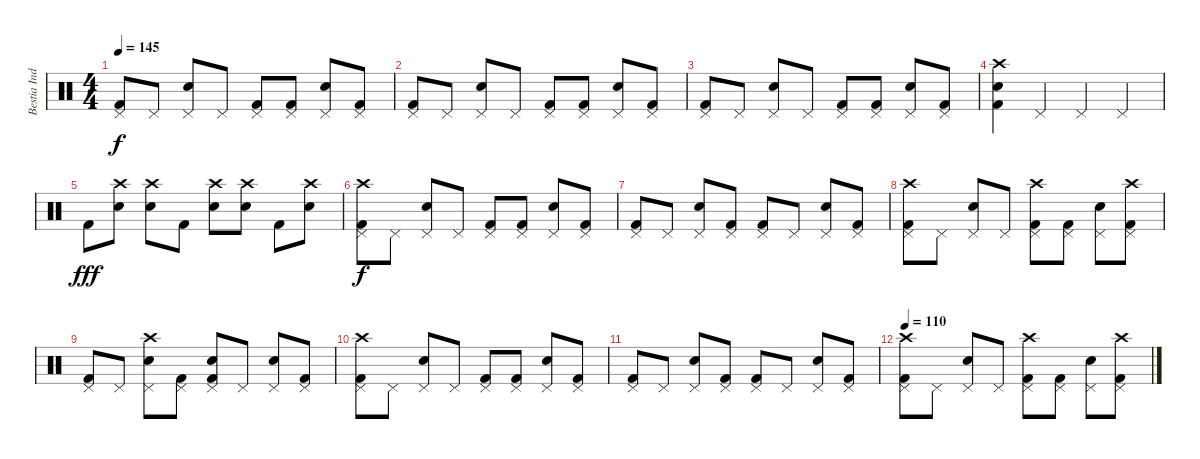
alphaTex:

\track ("Bestia Indomable" "Bestia Ind") {instrument percussion}
\staff {score}
\articulation defaults
\ts (4 4)
\tempo 145
\clef neutral
\ks c
("Pedal Hi-Hat (hit)" "Kick (hit) 2").8{dy f} "Pedal Hi-Hat (hit)".8 ("Pedal Hi-Hat (hit)" "Electric Snare (hit)").8 "Pedal Hi-Hat (hit)".8 ("Pedal Hi-Hat (hit)" "Kick (hit) 2").8 ("Pedal Hi-Hat (hit)" "Kick (hit) 2").8 ("Pedal Hi-Hat (hit)" "Electric Snare (hit)").8 ("Pedal Hi-Hat (hit)" "Kick (hit) 2").8 |
("Pedal Hi-Hat (hit)" "Kick (hit) 2").8 "Pedal Hi-Hat (hit)".8 ("Pedal Hi-Hat (hit)" "Electric Snare (hit)").8 "Pedal Hi-Hat (hit)".8 ("Pedal Hi-Hat (hit)" "Kick (hit) 2").8 ("Pedal Hi-Hat (hit)" "Kick (hit) 2").8 ("Pedal Hi-Hat (hit)" "Electric Snare (hit)").8 ("Pedal Hi-Hat (hit)" "Kick (hit) 2").8 |
("Pedal Hi-Hat (hit)" "Kick (hit) 2").8 "Pedal Hi-Hat (hit)".8 ("Pedal Hi-Hat (hit)" "Electric Snare (hit)").8 "Pedal Hi-Hat (hit)".8 ("Pedal Hi-Hat (hit)" "Kick (hit) 2").8 ("Pedal Hi-Hat (hit)" "Kick (hit) 2").8 ("Pedal Hi-Hat (hit)" "Electric Snare (hit)").8 ("Pedal Hi-Hat (hit)" "Kick (hit) 2").8 |
("Crash high (hit)" "Electric Snare (hit)" "Kick (hit) 2").4 "Pedal Hi-Hat (hit)".4 "Pedal Hi-Hat (hit)".4 "Pedal Hi-Hat (hit)".4 |
"Kick (hit) 2".8{dy fff} ("Crash high (hit)" "Electric Snare (hit)").8 ("Crash high (hit)" "Electric Snare (hit)").8 "Kick (hit) 2".8 ("Crash high (hit)" "Electric Snare (hit)").8 ("Crash high (hit)" "Electric Snare (hit)").8 "Kick (hit) 2".8 ("Crash high (hit)" "Electric Snare (hit)").8 |
("Pedal Hi-Hat (hit)" "Crash high (hit)" "Kick (hit) 2").8{dy f} "Pedal Hi-Hat (hit)".8 ("Pedal Hi-Hat (hit)" "Electric Snare (hit)").8 "Pedal Hi-Hat (hit)".8 ("Pedal Hi-Hat (hit)" "Kick (hit) 2").8 ("Pedal Hi-Hat (hit)" "Kick (hit) 2").8 ("Pedal Hi-Hat (hit)" "Electric Snare (hit)").8 ("Pedal Hi-Hat (hit)" "Kick (hit) 2").8 |
("Pedal Hi-Hat (hit)" "Kick (hit) 2").8 "Pedal Hi-Hat (hit)".8 ("Pedal Hi-Hat (hit)" "Electric Snare (hit)").8 ("Pedal Hi-Hat (hit)" "Kick (hit) 2").8 ("Pedal Hi-Hat (hit)" "Kick (hit) 2").8 "Pedal Hi-Hat (hit)".8 ("Pedal Hi-Hat (hit)" "Electric Snare (hit)").8 ("Pedal Hi-Hat (hit)" "Kick (hit) 2").8 |
("Pedal Hi-Hat (hit)" "Crash high (hit)" "Kick (hit) 2").8 "Pedal Hi-Hat (hit)".8 ("Pedal Hi-Hat (hit)" "Electric Snare (hit)").8 "Pedal Hi-Hat (hit)".8 ("Pedal Hi-Hat (hit)" "Crash high (hit)" "Kick (hit) 2").8 ("Pedal Hi-Hat (hit)" "Kick (hit) 2").8 ("Pedal Hi-Hat (hit)" "Electric Snare (hit)").8 ("Pedal Hi-Hat (hit)" "Crash high (hit)" "Kick (hit) 2").8 |
("Pedal Hi-Hat (hit)" "Kick (hit) 2").8 "Pedal Hi-Hat (hit)".8 ("Pedal Hi-Hat (hit)" "Crash high (hit)" "Electric Snare (hit)").8 ("Pedal Hi-Hat (hit)" "Kick (hit) 2").8 ("Pedal Hi-Hat (hit)" "Electric Snare (hit)" "Kick (hit) 2").8 "Pedal Hi-Hat (hit)".8 ("Pedal Hi-Hat (hit)" "Electric Snare (hit)").8 ("Pedal Hi-Hat (hit)" "Kick (hit) 2").8 |
("Pedal Hi-Hat (hit)" "Crash high (hit)" "Kick (hit) 2").8 "Pedal Hi-Hat (hit)".8 ("Pedal Hi-Hat (hit)" "Electric Snare (hit)").8 "Pedal Hi-Hat (hit)".8 ("Pedal Hi-Hat (hit)" "Kick (hit) 2").8 ("Pedal Hi-Hat (hit)" "Kick (hit) 2").8 ("Pedal Hi-Hat (hit)" "Electric Snare (hit)").8 ("Pedal Hi-Hat (hit)" "Kick (hit) 2").8 |
("Pedal Hi-Hat (hit)" "Kick (hit) 2").8 "Pedal Hi-Hat (hit)".8 ("Pedal Hi-Hat (hit)" "Electric Snare (hit)").8 ("Pedal Hi-Hat (hit)" "Kick (hit) 2").8 ("Pedal Hi-Hat (hit)" "Kick (hit) 2").8 "Pedal Hi-Hat (hit)".8 ("Pedal Hi-Hat (hit)" "Electric Snare (hit)").8 ("Pedal Hi-Hat (hit)" "Kick (hit) 2").8 |
\tempo 110
("Pedal Hi-Hat (hit)" "Crash high (hit)" "Kick (hit) 2").8 "Pedal Hi-Hat (hit)".8 ("Pedal Hi-Hat (hit)" "Electric Snare (hit)").8 "Pedal Hi-Hat (hit)".8 ("Pedal Hi-Hat (hit)" "Crash high (hit)" "Kick (hit) 2").8 ("Pedal Hi-Hat (hit)" "Kick (hit) 2").8 ("Pedal Hi-Hat (hit)" "Electric Snare (hit)").8 ("Pedal Hi-Hat (hit)" "Crash high (hit)" "Kick (hit) 2").8
